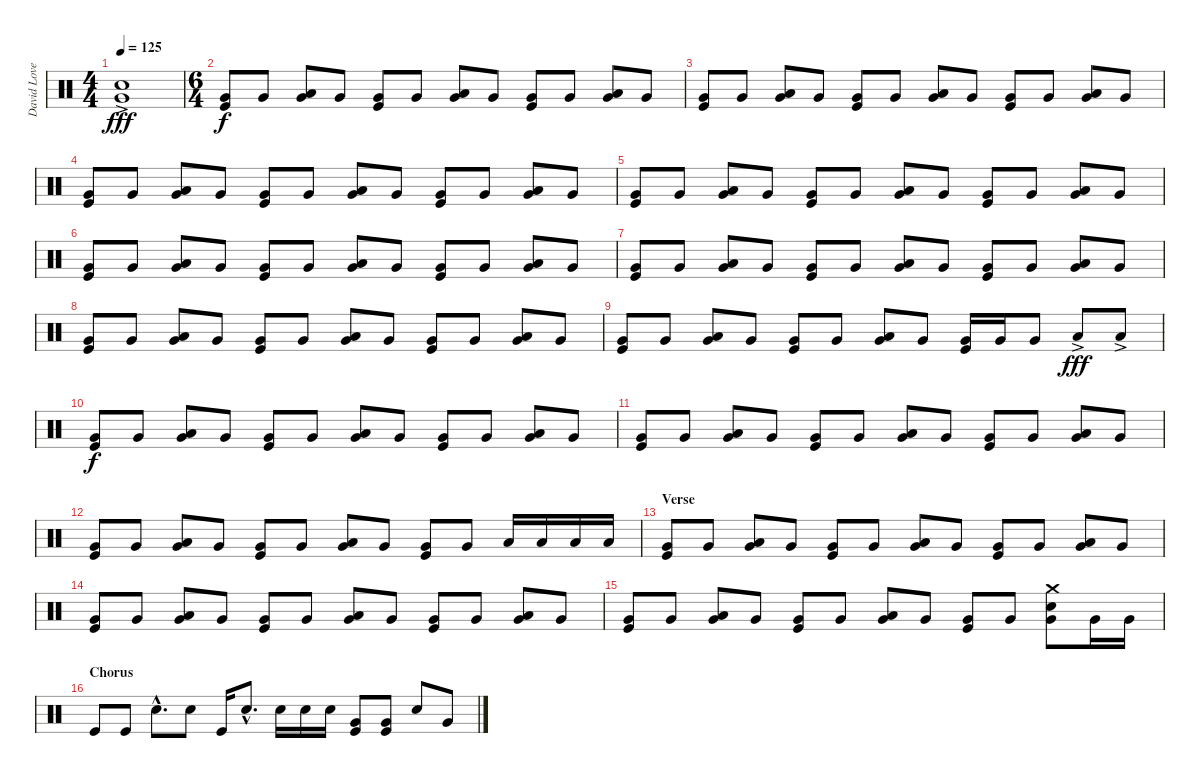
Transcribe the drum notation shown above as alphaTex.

\track ("David Lovering" "David Love") {instrument percussion}
\staff {score}
\articulation defaults
\ts (4 4)
\tempo 125
\clef neutral
\ks c
("Snare (hit) 2"{ac} "Very Low Tom (hit)").1{dy fff} |
\ts (6 4)
("Very Low Tom (hit)" "Kick (hit)").8{dy f} "Very Low Tom (hit)".8 ("Low Tom (hit)" "Very Low Tom (hit)").8 "Very Low Tom (hit)".8 ("Very Low Tom (hit)" "Kick (hit)").8 "Very Low Tom (hit)".8 ("Low Tom (hit)" "Very Low Tom (hit)").8 "Very Low Tom (hit)".8 ("Very Low Tom (hit)" "Kick (hit)").8 "Very Low Tom (hit)".8 ("Low Tom (hit)" "Very Low Tom (hit)").8 "Very Low Tom (hit)".8 |
("Very Low Tom (hit)" "Kick (hit)").8 "Very Low Tom (hit)".8 ("Low Tom (hit)" "Very Low Tom (hit)").8 "Very Low Tom (hit)".8 ("Very Low Tom (hit)" "Kick (hit)").8 "Very Low Tom (hit)".8 ("Low Tom (hit)" "Very Low Tom (hit)").8 "Very Low Tom (hit)".8 ("Very Low Tom (hit)" "Kick (hit)").8 "Very Low Tom (hit)".8 ("Low Tom (hit)" "Very Low Tom (hit)").8 "Very Low Tom (hit)".8 |
("Very Low Tom (hit)" "Kick (hit)").8 "Very Low Tom (hit)".8 ("Low Tom (hit)" "Very Low Tom (hit)").8 "Very Low Tom (hit)".8 ("Very Low Tom (hit)" "Kick (hit)").8 "Very Low Tom (hit)".8 ("Low Tom (hit)" "Very Low Tom (hit)").8 "Very Low Tom (hit)".8 ("Very Low Tom (hit)" "Kick (hit)").8 "Very Low Tom (hit)".8 ("Low Tom (hit)" "Very Low Tom (hit)").8 "Very Low Tom (hit)".8 |
("Very Low Tom (hit)" "Kick (hit)").8 "Very Low Tom (hit)".8 ("Low Tom (hit)" "Very Low Tom (hit)").8 "Very Low Tom (hit)".8 ("Very Low Tom (hit)" "Kick (hit)").8 "Very Low Tom (hit)".8 ("Low Tom (hit)" "Very Low Tom (hit)").8 "Very Low Tom (hit)".8 ("Very Low Tom (hit)" "Kick (hit)").8 "Very Low Tom (hit)".8 ("Low Tom (hit)" "Very Low Tom (hit)").8 "Very Low Tom (hit)".8 |
("Very Low Tom (hit)" "Kick (hit)").8 "Very Low Tom (hit)".8 ("Low Tom (hit)" "Very Low Tom (hit)").8 "Very Low Tom (hit)".8 ("Very Low Tom (hit)" "Kick (hit)").8 "Very Low Tom (hit)".8 ("Low Tom (hit)" "Very Low Tom (hit)").8 "Very Low Tom (hit)".8 ("Very Low Tom (hit)" "Kick (hit)").8 "Very Low Tom (hit)".8 ("Low Tom (hit)" "Very Low Tom (hit)").8 "Very Low Tom (hit)".8 |
("Very Low Tom (hit)" "Kick (hit)").8 "Very Low Tom (hit)".8 ("Low Tom (hit)" "Very Low Tom (hit)").8 "Very Low Tom (hit)".8 ("Very Low Tom (hit)" "Kick (hit)").8 "Very Low Tom (hit)".8 ("Low Tom (hit)" "Very Low Tom (hit)").8 "Very Low Tom (hit)".8 ("Very Low Tom (hit)" "Kick (hit)").8 "Very Low Tom (hit)".8 ("Low Tom (hit)" "Very Low Tom (hit)").8 "Very Low Tom (hit)".8 |
("Very Low Tom (hit)" "Kick (hit)").8 "Very Low Tom (hit)".8 ("Low Tom (hit)" "Very Low Tom (hit)").8 "Very Low Tom (hit)".8 ("Very Low Tom (hit)" "Kick (hit)").8 "Very Low Tom (hit)".8 ("Low Tom (hit)" "Very Low Tom (hit)").8 "Very Low Tom (hit)".8 ("Very Low Tom (hit)" "Kick (hit)").8 "Very Low Tom (hit)".8 ("Low Tom (hit)" "Very Low Tom (hit)").8 "Very Low Tom (hit)".8 |
("Very Low Tom (hit)" "Kick (hit)").8 "Very Low Tom (hit)".8 ("Low Tom (hit)" "Very Low Tom (hit)").8 "Very Low Tom (hit)".8 ("Very Low Tom (hit)" "Kick (hit)").8 "Very Low Tom (hit)".8 ("Low Tom (hit)" "Very Low Tom (hit)").8 "Very Low Tom (hit)".8 ("Very Low Tom (hit)" "Kick (hit)").16 "Very Low Tom (hit)".16 "Very Low Tom (hit)".8 "Low Tom (hit)"{ac}.8{dy fff} "Low Tom (hit)"{ac}.8 |
("Very Low Tom (hit)" "Kick (hit)").8{dy f} "Very Low Tom (hit)".8 ("Low Tom (hit)" "Very Low Tom (hit)").8 "Very Low Tom (hit)".8 ("Very Low Tom (hit)" "Kick (hit)").8 "Very Low Tom (hit)".8 ("Low Tom (hit)" "Very Low Tom (hit)").8 "Very Low Tom (hit)".8 ("Very Low Tom (hit)" "Kick (hit)").8 "Very Low Tom (hit)".8 ("Low Tom (hit)" "Very Low Tom (hit)").8 "Very Low Tom (hit)".8 |
("Very Low Tom (hit)" "Kick (hit)").8 "Very Low Tom (hit)".8 ("Low Tom (hit)" "Very Low Tom (hit)").8 "Very Low Tom (hit)".8 ("Very Low Tom (hit)" "Kick (hit)").8 "Very Low Tom (hit)".8 ("Low Tom (hit)" "Very Low Tom (hit)").8 "Very Low Tom (hit)".8 ("Very Low Tom (hit)" "Kick (hit)").8 "Very Low Tom (hit)".8 ("Low Tom (hit)" "Very Low Tom (hit)").8 "Very Low Tom (hit)".8 |
("Very Low Tom (hit)" "Kick (hit)").8 "Very Low Tom (hit)".8 ("Low Tom (hit)" "Very Low Tom (hit)").8 "Very Low Tom (hit)".8 ("Very Low Tom (hit)" "Kick (hit)").8 "Very Low Tom (hit)".8 ("Low Tom (hit)" "Very Low Tom (hit)").8 "Very Low Tom (hit)".8 ("Very Low Tom (hit)" "Kick (hit)").8 "Very Low Tom (hit)".8 "Low Tom (hit)".16 "Low Tom (hit)".16 "Low Tom (hit)".16 "Low Tom (hit)".16 |
\section ("" "Verse")
("Very Low Tom (hit)" "Kick (hit)").8 "Very Low Tom (hit)".8 ("Low Tom (hit)" "Very Low Tom (hit)").8 "Very Low Tom (hit)".8 ("Very Low Tom (hit)" "Kick (hit)").8 "Very Low Tom (hit)".8 ("Low Tom (hit)" "Very Low Tom (hit)").8 "Very Low Tom (hit)".8 ("Very Low Tom (hit)" "Kick (hit)").8 "Very Low Tom (hit)".8 ("Low Tom (hit)" "Very Low Tom (hit)").8 "Very Low Tom (hit)".8 |
("Very Low Tom (hit)" "Kick (hit)").8 "Very Low Tom (hit)".8 ("Low Tom (hit)" "Very Low Tom (hit)").8 "Very Low Tom (hit)".8 ("Very Low Tom (hit)" "Kick (hit)").8 "Very Low Tom (hit)".8 ("Low Tom (hit)" "Very Low Tom (hit)").8 "Very Low Tom (hit)".8 ("Very Low Tom (hit)" "Kick (hit)").8 "Very Low Tom (hit)".8 ("Low Tom (hit)" "Very Low Tom (hit)").8 "Very Low Tom (hit)".8 |
("Very Low Tom (hit)" "Kick (hit)").8 "Very Low Tom (hit)".8 ("Low Tom (hit)" "Very Low Tom (hit)").8 "Very Low Tom (hit)".8 ("Very Low Tom (hit)" "Kick (hit)").8 "Very Low Tom (hit)".8 ("Low Tom (hit)" "Very Low Tom (hit)").8 "Very Low Tom (hit)".8 ("Very Low Tom (hit)" "Kick (hit)").8 "Very Low Tom (hit)".8 ("Crash medium (hit)" "Snare (hit) 2" "Very Low Tom (hit)").8 "Very Low Tom (hit)".16 "Very Low Tom (hit)".16 |
\section ("" "Chorus")
"Kick (hit)".8 "Kick (hit)".8 "Snare (hit) 2"{hac}.8{d} "Snare (hit) 2".8 "Kick (hit)".16 "Snare (hit) 2"{hac}.8{d} "Snare (hit) 2".16 "Snare (hit) 2".16 "Snare (hit) 2".16 ("Very Low Tom (hit)" "Kick (hit)").8 ("Very Low Tom (hit)" "Kick (hit)").8 "Snare (hit) 2".8 "Very Low Tom (hit)".8
